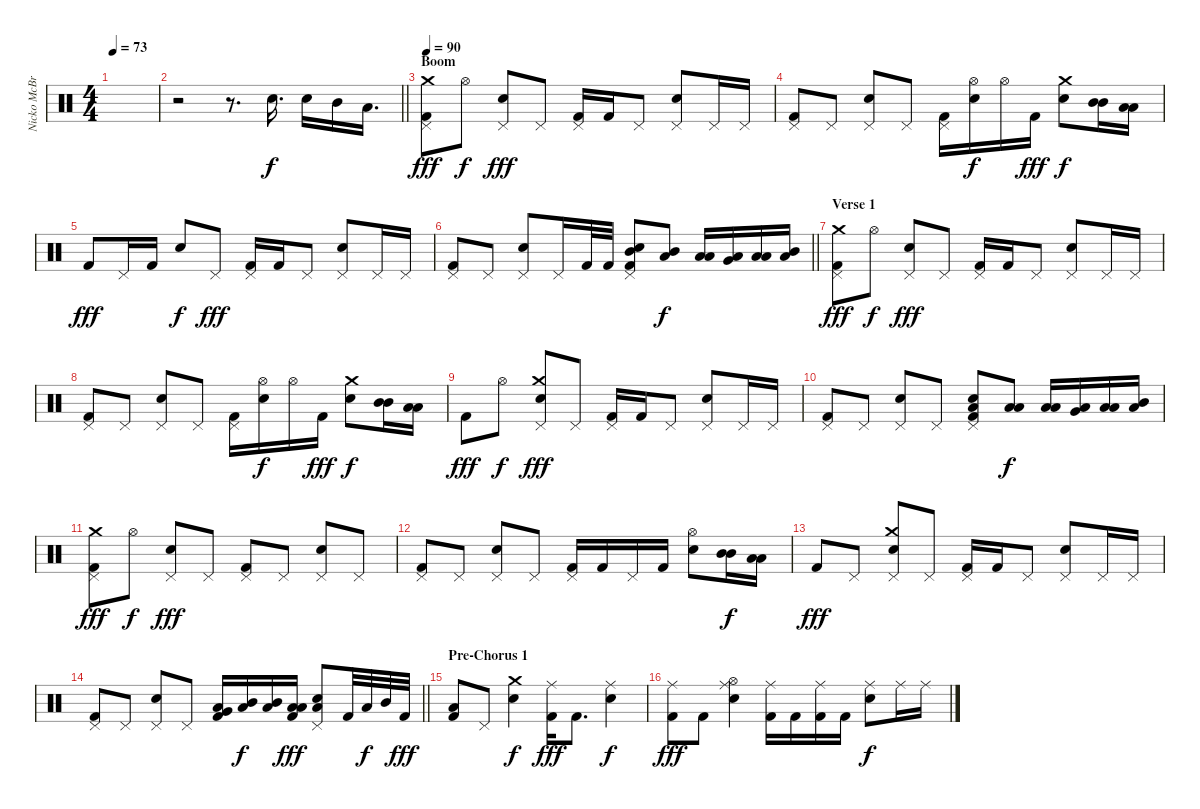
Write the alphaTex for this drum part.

\track ("Nicko McBrain" "Nicko McBr") {instrument percussion}
\staff {score}
\articulation defaults
\ts (4 4)
\tempo 73
\clef neutral
\ks c
|
\barLineRight lightlight
r.2 r.8{d} "Snare (hit) 2".16{d} "Snare (hit) 2".16 "Mid Tom (hit)".16 "Low Tom (hit)".16{d} |
\section ("" "Boom")
\tempo 90
("Crash medium (hit)" "Pedal Hi-Hat (hit)" "Kick (hit) 2").8{dy fff} "Hi-Hat (open)".8{dy f} ("Snare (hit) 2" "Pedal Hi-Hat (hit)").8{dy fff} "Pedal Hi-Hat (hit)".8 ("Pedal Hi-Hat (hit)" "Kick (hit) 2").16 "Kick (hit) 2".16 "Pedal Hi-Hat (hit)".8 ("Snare (hit) 2" "Pedal Hi-Hat (hit)").8 "Pedal Hi-Hat (hit)".16 "Pedal Hi-Hat (hit)".16 |
("Pedal Hi-Hat (hit)" "Kick (hit) 2").8 "Pedal Hi-Hat (hit)".8 ("Snare (hit) 2" "Pedal Hi-Hat (hit)").8 "Pedal Hi-Hat (hit)".8 ("Pedal Hi-Hat (hit)" "Kick (hit) 2").16 ("Snare (hit) 2" "Hi-Hat (open)").16{dy f} "Hi-Hat (open)".16 "Kick (hit) 2".16{dy fff} ("Snare (hit) 2" "Crash medium (hit)").8{dy f} ("Mid Tom (hit)" "Mid Tom (hit)").16 ("Low Tom (hit)" "Low Tom (hit)").16 |
"Kick (hit) 2".8{dy fff} "Pedal Hi-Hat (hit)".16 "Kick (hit) 2".16 "Snare (hit) 2".8{dy f} "Pedal Hi-Hat (hit)".8{dy fff} ("Pedal Hi-Hat (hit)" "Kick (hit) 2").16 "Kick (hit) 2".16 "Pedal Hi-Hat (hit)".8 ("Snare (hit) 2" "Pedal Hi-Hat (hit)").8 "Pedal Hi-Hat (hit)".16 "Pedal Hi-Hat (hit)".16 |
\barLineRight lightlight
("Pedal Hi-Hat (hit)" "Kick (hit) 2").8 "Pedal Hi-Hat (hit)".8 ("Snare (hit) 2" "Pedal Hi-Hat (hit)").8 "Pedal Hi-Hat (hit)".16 "Kick (hit) 2".32 "Kick (hit) 2".32 ("Snare (hit) 2" "Mid Tom (hit)" "Pedal Hi-Hat (hit)" "Kick (hit) 2").8 ("Mid Tom (hit)" "Low Tom (hit)").8{dy f} ("Low Floor Tom (hit)" "Low Tom (hit)").16 ("Very Low Tom (hit)" "Low Tom (hit)").16 ("Low Tom (hit)" "Low Tom (hit)").16 ("Mid Tom (hit)" "Low Tom (hit)").16 |
\section ("" "Verse 1")
("Crash medium (hit)" "Pedal Hi-Hat (hit)" "Kick (hit) 2").8{dy fff} "Hi-Hat (open)".8{dy f} ("Snare (hit) 2" "Pedal Hi-Hat (hit)").8{dy fff} "Pedal Hi-Hat (hit)".8 ("Pedal Hi-Hat (hit)" "Kick (hit) 2").16 "Kick (hit) 2".16 "Pedal Hi-Hat (hit)".8 ("Snare (hit) 2" "Pedal Hi-Hat (hit)").8 "Pedal Hi-Hat (hit)".16 "Pedal Hi-Hat (hit)".16 |
("Pedal Hi-Hat (hit)" "Kick (hit) 2").8 "Pedal Hi-Hat (hit)".8 ("Snare (hit) 2" "Pedal Hi-Hat (hit)").8 "Pedal Hi-Hat (hit)".8 ("Pedal Hi-Hat (hit)" "Kick (hit) 2").16 ("Snare (hit) 2" "Hi-Hat (open)").16{dy f} "Hi-Hat (open)".16 "Kick (hit) 2".16{dy fff} ("Snare (hit) 2" "Crash medium (hit)").8{dy f} ("Mid Tom (hit)" "Mid Tom (hit)").16 ("Low Tom (hit)" "Low Tom (hit)").16 |
"Kick (hit) 2".8{dy fff} "Hi-Hat (open)".8{dy f} ("Snare (hit) 2" "Crash medium (hit)" "Pedal Hi-Hat (hit)").8{dy fff} "Pedal Hi-Hat (hit)".8 ("Pedal Hi-Hat (hit)" "Kick (hit) 2").16 "Kick (hit) 2".16 "Pedal Hi-Hat (hit)".8 ("Snare (hit) 2" "Pedal Hi-Hat (hit)").8 "Pedal Hi-Hat (hit)".16 "Pedal Hi-Hat (hit)".16 |
("Pedal Hi-Hat (hit)" "Kick (hit) 2").8 "Pedal Hi-Hat (hit)".8 ("Snare (hit) 2" "Pedal Hi-Hat (hit)").8 "Pedal Hi-Hat (hit)".8 ("Snare (hit) 2" "Low Tom (hit)" "Pedal Hi-Hat (hit)" "Kick (hit) 2").8 ("Low Tom (hit)" "Low Tom (hit)").8{dy f} ("Low Floor Tom (hit)" "Low Tom (hit)").16 ("Very Low Tom (hit)" "Low Tom (hit)").16 ("Low Tom (hit)" "Low Tom (hit)").16 ("Mid Tom (hit)" "Low Tom (hit)").16 |
("Crash medium (hit)" "Pedal Hi-Hat (hit)" "Kick (hit) 2").8{dy fff} "Hi-Hat (open)".8{dy f} ("Snare (hit) 2" "Pedal Hi-Hat (hit)").8{dy fff} "Pedal Hi-Hat (hit)".8 ("Pedal Hi-Hat (hit)" "Kick (hit) 2").8 "Pedal Hi-Hat (hit)".8 ("Snare (hit) 2" "Pedal Hi-Hat (hit)").8 "Pedal Hi-Hat (hit)".8 |
("Pedal Hi-Hat (hit)" "Kick (hit) 2").8 "Pedal Hi-Hat (hit)".8 ("Snare (hit) 2" "Pedal Hi-Hat (hit)").8 "Pedal Hi-Hat (hit)".8 ("Pedal Hi-Hat (hit)" "Kick (hit) 2").16 "Kick (hit) 2".16 "Pedal Hi-Hat (hit)".16 "Kick (hit) 2".16 ("Snare (hit) 2" "Hi-Hat (open)").8 ("Mid Tom (hit)" "Mid Tom (hit)").16{dy f} ("Low Tom (hit)" "Low Tom (hit)").16 |
"Kick (hit) 2".8{dy fff} "Pedal Hi-Hat (hit)".8 ("Snare (hit) 2" "Crash medium (hit)" "Pedal Hi-Hat (hit)").8 "Pedal Hi-Hat (hit)".8 ("Pedal Hi-Hat (hit)" "Kick (hit) 2").16 "Kick (hit) 2".16 "Pedal Hi-Hat (hit)".8 ("Snare (hit) 2" "Pedal Hi-Hat (hit)").8 "Pedal Hi-Hat (hit)".16 "Pedal Hi-Hat (hit)".16 |
\barLineRight lightlight
("Pedal Hi-Hat (hit)" "Kick (hit) 2").8 "Pedal Hi-Hat (hit)".8 ("Snare (hit) 2" "Pedal Hi-Hat (hit)").8 "Pedal Hi-Hat (hit)".8 ("Very Low Tom (hit)" "Low Tom (hit)" "Kick (hit) 2").16 ("Mid Tom (hit)" "Low Tom (hit)").16{dy f} ("Mid Tom (hit)" "Low Tom (hit)").16 ("Low Tom (hit)" "Low Tom (hit)" "Kick (hit) 2").16{dy fff} ("Snare (hit) 2" "Low Tom (hit)" "Pedal Hi-Hat (hit)").8 "Kick (hit) 2".32 "Low Tom (hit)".32{dy f} "Mid Tom (hit)".32 "Kick (hit) 2".32{dy fff} |
\section ("" "Pre-Chorus 1")
("Low Tom (hit)" "Kick (hit) 2").8 "Pedal Hi-Hat (hit)".8 ("Snare (hit) 2" "Crash medium (hit)").4{dy f} ("Ride (middle)" "Kick (hit) 2").16{dy fff} "Kick (hit) 2".8{d} ("Snare (hit) 2" "Ride (middle)").4{dy f} |
("Ride (middle)" "Kick (hit) 2").8{dy fff} "Kick (hit) 2".8 ("Snare (hit) 2" "Hi-Hat (open)" "Ride (middle)").4 ("Ride (middle)" "Kick (hit) 2").16 "Kick (hit) 2".16 ("Ride (middle)" "Kick (hit) 2").16 "Kick (hit) 2".16 ("Snare (hit) 2" "Ride (middle)").8{dy f} "Ride (middle)".16 "Ride (middle)".16
